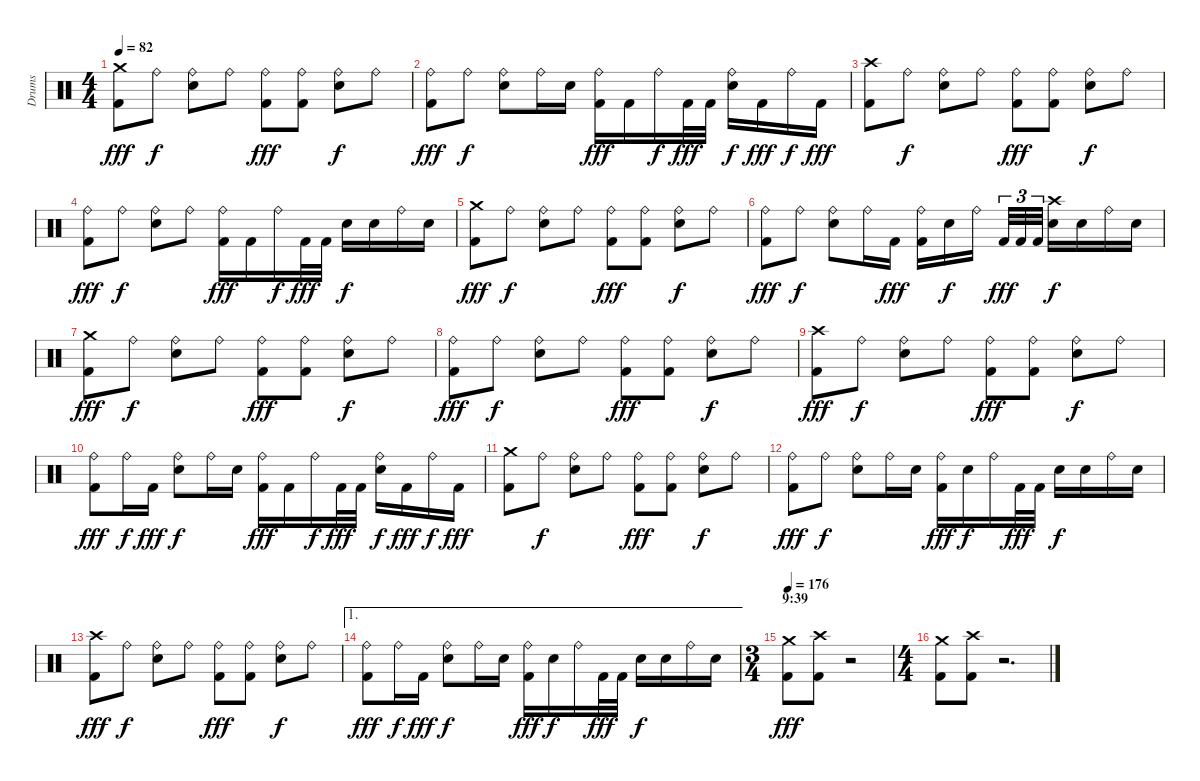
\track ("Drums" "Drums") {instrument percussion}
\staff {score}
\articulation defaults
\ts (4 4)
\tempo 82
\clef neutral
\ks c
("Crash medium (hit)" "Kick (hit) 2").8{dy fff} "Ride (bell)".8{dy f} ("Ride (bell)" "Snare (hit) 2").8 "Ride (bell)".8 ("Ride (bell)" "Kick (hit) 2").8{dy fff} ("Ride (bell)" "Kick (hit) 2").8 ("Ride (bell)" "Snare (hit) 2").8{dy f} "Ride (bell)".8 |
("Ride (bell)" "Kick (hit) 2").8{dy fff} "Ride (bell)".8{dy f} ("Ride (bell)" "Snare (hit) 2").8 "Ride (bell)".16 "Snare (hit) 2".16 ("Ride (bell)" "Kick (hit) 2").16{dy fff} "Kick (hit) 2".16 "Ride (bell)".16{dy f} "Kick (hit) 2".32{dy fff} "Kick (hit) 2".32 ("Ride (bell)" "Snare (hit) 2").16{dy f} "Kick (hit) 2".16{dy fff} "Ride (bell)".16{dy f} "Kick (hit) 2".16{dy fff} |
("Crash high (hit)" "Kick (hit) 2").8 "Ride (bell)".8{dy f} ("Ride (bell)" "Snare (hit) 2").8 "Ride (bell)".8 ("Ride (bell)" "Kick (hit) 2").8{dy fff} ("Ride (bell)" "Kick (hit) 2").8 ("Ride (bell)" "Snare (hit) 2").8{dy f} "Ride (bell)".8 |
("Ride (bell)" "Kick (hit) 2").8{dy fff} "Ride (bell)".8{dy f} ("Ride (bell)" "Snare (hit) 2").8 "Ride (bell)".8 ("Ride (bell)" "Kick (hit) 2").16{dy fff} "Kick (hit) 2".16 "Ride (bell)".16{dy f} "Kick (hit) 2".32{dy fff} "Kick (hit) 2".32 "Snare (hit) 2".16{dy f} "Snare (hit) 2".16 "Ride (bell)".16 "Snare (hit) 2".16 |
("Crash medium (hit)" "Kick (hit) 2").8{dy fff} "Ride (bell)".8{dy f} ("Ride (bell)" "Snare (hit) 2").8 "Ride (bell)".8 ("Ride (bell)" "Kick (hit) 2").8{dy fff} ("Ride (bell)" "Kick (hit) 2").8 ("Ride (bell)" "Snare (hit) 2").8{dy f} "Ride (bell)".8 |
("Ride (bell)" "Kick (hit) 2").8{dy fff} "Ride (bell)".8{dy f} ("Ride (bell)" "Snare (hit) 2").8 "Ride (bell)".16 "Kick (hit) 2".16{dy fff} ("Ride (bell)" "Kick (hit) 2").16 "Snare (hit) 2".16{dy f} "Ride (bell)".16 "Kick (hit) 2".32{tu (3 2) dy fff} "Kick (hit) 2".32{tu (3 2)} "Kick (hit) 2".32{tu (3 2)} ("Crash high (hit)" "Snare (hit) 2").16{dy f} "Snare (hit) 2".16 "Ride (bell)".16 "Snare (hit) 2".16 |
("Crash medium (hit)" "Kick (hit) 2").8{dy fff} "Ride (bell)".8{dy f} ("Ride (bell)" "Snare (hit) 2").8 "Ride (bell)".8 ("Ride (bell)" "Kick (hit) 2").8{dy fff} ("Ride (bell)" "Kick (hit) 2").8 ("Ride (bell)" "Snare (hit) 2").8{dy f} "Ride (bell)".8 |
("Ride (bell)" "Kick (hit) 2").8{dy fff} "Ride (bell)".8{dy f} ("Ride (bell)" "Snare (hit) 2").8 "Ride (bell)".8 ("Ride (bell)" "Kick (hit) 2").8{dy fff} ("Ride (bell)" "Kick (hit) 2").8 ("Ride (bell)" "Snare (hit) 2").8{dy f} "Ride (bell)".8 |
("Crash high (hit)" "Kick (hit) 2").8{dy fff} "Ride (bell)".8{dy f} ("Ride (bell)" "Snare (hit) 2").8 "Ride (bell)".8 ("Ride (bell)" "Kick (hit) 2").8{dy fff} ("Ride (bell)" "Kick (hit) 2").8 ("Ride (bell)" "Snare (hit) 2").8{dy f} "Ride (bell)".8 |
("Ride (bell)" "Kick (hit) 2").8{dy fff} "Ride (bell)".16{dy f} "Kick (hit) 2".16{dy fff} ("Ride (bell)" "Snare (hit) 2").8{dy f} "Ride (bell)".16 "Snare (hit) 2".16 ("Ride (bell)" "Kick (hit) 2").16{dy fff} "Kick (hit) 2".16 "Ride (bell)".16{dy f} "Kick (hit) 2".32{dy fff} "Kick (hit) 2".32 ("Ride (bell)" "Snare (hit) 2").16{dy f} "Kick (hit) 2".16{dy fff} "Ride (bell)".16{dy f} "Kick (hit) 2".16{dy fff} |
("Crash medium (hit)" "Kick (hit) 2").8 "Ride (bell)".8{dy f} ("Ride (bell)" "Snare (hit) 2").8 "Ride (bell)".8 ("Ride (bell)" "Kick (hit) 2").8{dy fff} ("Ride (bell)" "Kick (hit) 2").8 ("Ride (bell)" "Snare (hit) 2").8{dy f} "Ride (bell)".8 |
("Ride (bell)" "Kick (hit) 2").8{dy fff} "Ride (bell)".8{dy f} ("Ride (bell)" "Snare (hit) 2").8 "Ride (bell)".16 "Snare (hit) 2".16 ("Ride (bell)" "Kick (hit) 2").16{dy fff} "Snare (hit) 2".16{dy f} "Ride (bell)".16 "Kick (hit) 2".32{dy fff} "Kick (hit) 2".32 "Snare (hit) 2".16{dy f} "Snare (hit) 2".16 "Ride (bell)".16 "Snare (hit) 2".16 |
("Crash high (hit)" "Kick (hit) 2").8{dy fff} "Ride (bell)".8{dy f} ("Ride (bell)" "Snare (hit) 2").8 "Ride (bell)".8 ("Ride (bell)" "Kick (hit) 2").8{dy fff} ("Ride (bell)" "Kick (hit) 2").8 ("Ride (bell)" "Snare (hit) 2").8{dy f} "Ride (bell)".8 |
\ae 1
("Ride (bell)" "Kick (hit) 2").8{dy fff} "Ride (bell)".16{dy f} "Kick (hit) 2".16{dy fff} ("Ride (bell)" "Snare (hit) 2").8{dy f} "Ride (bell)".16 "Snare (hit) 2".16 ("Ride (bell)" "Kick (hit) 2").16{dy fff} "Snare (hit) 2".16{dy f} "Ride (bell)".16 "Kick (hit) 2".32{dy fff} "Kick (hit) 2".32 "Snare (hit) 2".16{dy f} "Snare (hit) 2".16 "Ride (bell)".16 "Snare (hit) 2".16 |
\ts (3 4)
\section ("" "9:39")
\tempo 176
("Crash medium (hit)" "Kick (hit) 2").8{dy fff} ("Crash high (hit)" "Kick (hit) 2").8 r.2 |
\ts (4 4)
("Crash medium (hit)" "Kick (hit) 2").8 ("Crash high (hit)" "Kick (hit) 2").8 r.2{d}
